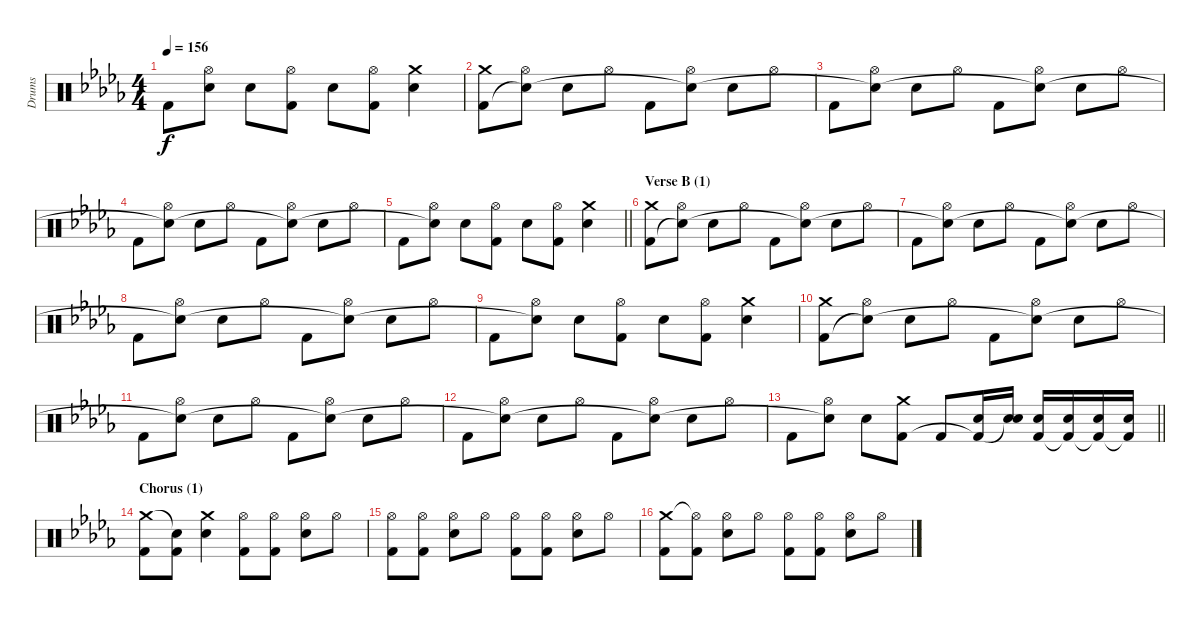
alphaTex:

\track ("Drums" "Drums") {instrument percussion}
\staff {score}
\articulation defaults
\ts (4 4)
\tempo 156
\clef neutral
\ks db "Kick (hit) 2".8{dy f}
("Hi-Hat (open)" "Snare (hit)"{t}).8 "Electric Snare (hit)".8 ("Hi-Hat (open)" "Kick (hit) 2").8 "Electric Snare (hit)".8 ("Hi-Hat (open)" "Kick (hit) 2").8 ("Crash medium (hit)" "Electric Snare (hit)").4 |
("Crash medium (hit)" "Kick (hit) 2").8 ("Hi-Hat (open)" "Snare (hit)"{t}).8 "Electric Snare (hit)".8 "Hi-Hat (open)".8 "Kick (hit) 2".8 ("Hi-Hat (open)" "Snare (hit)"{t}).8 "Electric Snare (hit)".8 "Hi-Hat (open)".8 |
"Kick (hit) 2".8 ("Hi-Hat (open)" "Snare (hit)"{t}).8 "Electric Snare (hit)".8 "Hi-Hat (open)".8 "Kick (hit) 2".8 ("Hi-Hat (open)" "Snare (hit)"{t}).8 "Electric Snare (hit)".8 "Hi-Hat (open)".8 |
"Kick (hit) 2".8 ("Hi-Hat (open)" "Snare (hit)"{t}).8 "Electric Snare (hit)".8 "Hi-Hat (open)".8 "Kick (hit) 2".8 ("Hi-Hat (open)" "Snare (hit)"{t}).8 "Electric Snare (hit)".8 "Hi-Hat (open)".8 |
\barLineRight lightlight "Kick (hit) 2".8
("Hi-Hat (open)" "Snare (hit)"{t}).8 "Electric Snare (hit)".8 ("Hi-Hat (open)" "Kick (hit) 2").8 "Electric Snare (hit)".8 ("Hi-Hat (open)" "Kick (hit) 2").8 ("Crash medium (hit)" "Electric Snare (hit)").4 |
\section ("" "Verse B (1)")
("Crash medium (hit)" "Kick (hit) 2").8 ("Hi-Hat (open)" "Snare (hit)"{t}).8 "Electric Snare (hit)".8 "Hi-Hat (open)".8 "Kick (hit) 2".8 ("Hi-Hat (open)" "Snare (hit)"{t}).8 "Electric Snare (hit)".8 "Hi-Hat (open)".8 |
"Kick (hit) 2".8 ("Hi-Hat (open)" "Snare (hit)"{t}).8 "Electric Snare (hit)".8 "Hi-Hat (open)".8 "Kick (hit) 2".8 ("Hi-Hat (open)" "Snare (hit)"{t}).8 "Electric Snare (hit)".8 "Hi-Hat (open)".8 |
"Kick (hit) 2".8 ("Hi-Hat (open)" "Snare (hit)"{t}).8 "Electric Snare (hit)".8 "Hi-Hat (open)".8 "Kick (hit) 2".8 ("Hi-Hat (open)" "Snare (hit)"{t}).8 "Electric Snare (hit)".8 "Hi-Hat (open)".8 |
"Kick (hit) 2".8 ("Hi-Hat (open)" "Snare (hit)"{t}).8 "Electric Snare (hit)".8 ("Hi-Hat (open)" "Kick (hit) 2").8 "Electric Snare (hit)".8 ("Hi-Hat (open)" "Kick (hit) 2").8 ("Crash medium (hit)" "Electric Snare (hit)").4 |
("Crash medium (hit)" "Kick (hit) 2").8 ("Hi-Hat (open)" "Snare (hit)"{t}).8 "Electric Snare (hit)".8 "Hi-Hat (open)".8 "Kick (hit) 2".8 ("Hi-Hat (open)" "Snare (hit)"{t}).8 "Electric Snare (hit)".8 "Hi-Hat (open)".8 |
"Kick (hit) 2".8 ("Hi-Hat (open)" "Snare (hit)"{t}).8 "Electric Snare (hit)".8 "Hi-Hat (open)".8 "Kick (hit) 2".8 ("Hi-Hat (open)" "Snare (hit)"{t}).8 "Electric Snare (hit)".8 "Hi-Hat (open)".8 |
"Kick (hit) 2".8 ("Hi-Hat (open)" "Snare (hit)"{t}).8 "Electric Snare (hit)".8 "Hi-Hat (open)".8 "Kick (hit) 2".8 ("Hi-Hat (open)" "Snare (hit)"{t}).8 "Electric Snare (hit)".8 "Hi-Hat (open)".8 |
\barLineRight lightlight "Kick (hit) 2".8
("Hi-Hat (open)" "Snare (hit)"{t}).8 "Electric Snare (hit)".8 ("Crash medium (hit)" "Kick (hit) 2").8 "Kick (hit) 2".8 ("Electric Snare (hit)" "Kick (hit) 2"{t}).16 ("Electric Snare (hit)" "Snare (hit)"{t}).16 ("Electric Snare (hit)" "Kick (hit) 2").16 ("Electric Snare (hit)" "Kick (hit) 2"{t}).16 ("Electric Snare (hit)" "Kick (hit) 2"{t}).16 ("Electric Snare (hit)" "Kick (hit) 2"{t}).16 |
\section ("" "Chorus (1)")
("Crash medium (hit)" "Kick (hit) 2").8 ("Snare (hit)"{t} "Kick (hit) 2").8 ("Crash medium (hit)" "Electric Snare (hit)").4 ("Hi-Hat (open)" "Kick (hit) 2").8 ("Hi-Hat (open)" "Kick (hit) 2").8 ("Hi-Hat (open)" "Electric Snare (hit)").8 "Hi-Hat (open)".8 |
("Hi-Hat (open)" "Kick (hit) 2").8 ("Hi-Hat (open)" "Kick (hit) 2").8 ("Hi-Hat (open)" "Electric Snare (hit)").8 "Hi-Hat (open)".8 ("Hi-Hat (open)" "Kick (hit) 2").8 ("Hi-Hat (open)" "Kick (hit) 2").8 ("Hi-Hat (open)" "Electric Snare (hit)").8 "Hi-Hat (open)".8 |
("Crash medium (hit)" "Kick (hit) 2").8 ("Hi-Hat (open)"{t} "Kick (hit) 2").8 ("Hi-Hat (open)" "Electric Snare (hit)").8 "Hi-Hat (open)".8 ("Hi-Hat (open)" "Kick (hit) 2").8 ("Hi-Hat (open)" "Kick (hit) 2").8 ("Hi-Hat (open)" "Electric Snare (hit)").8 "Hi-Hat (open)".8
